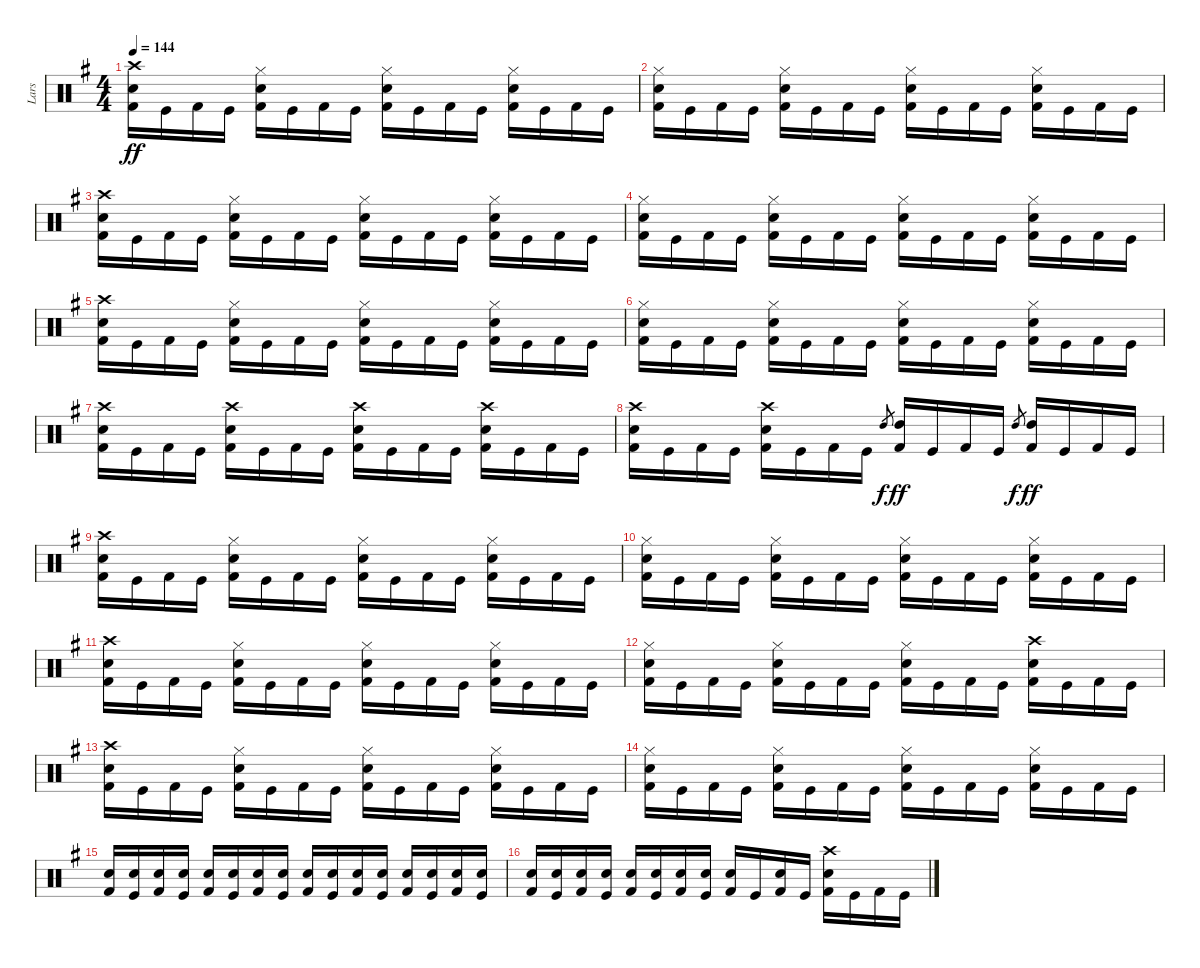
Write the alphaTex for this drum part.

\track ("Lars" "Lars") {instrument percussion}
\staff {score}
\articulation defaults
\ts (4 4)
\tempo 144
\clef neutral
\ks g
("Crash high (hit)" "Snare (hit) 2" "Kick (hit) 2").16{dy ff} "Kick (hit)".16 "Kick (hit) 2".16 "Kick (hit)".16 ("Hi-Hat (closed)" "Snare (hit) 2" "Kick (hit) 2").16 "Kick (hit)".16 "Kick (hit) 2".16 "Kick (hit)".16 ("Hi-Hat (closed)" "Snare (hit) 2" "Kick (hit) 2").16 "Kick (hit)".16 "Kick (hit) 2".16 "Kick (hit)".16 ("Hi-Hat (closed)" "Snare (hit) 2" "Kick (hit) 2").16 "Kick (hit)".16 "Kick (hit) 2".16 "Kick (hit)".16 |
("Hi-Hat (closed)" "Snare (hit) 2" "Kick (hit) 2").16 "Kick (hit)".16 "Kick (hit) 2".16 "Kick (hit)".16 ("Hi-Hat (closed)" "Snare (hit) 2" "Kick (hit) 2").16 "Kick (hit)".16 "Kick (hit) 2".16 "Kick (hit)".16 ("Hi-Hat (closed)" "Snare (hit) 2" "Kick (hit) 2").16 "Kick (hit)".16 "Kick (hit) 2".16 "Kick (hit)".16 ("Hi-Hat (closed)" "Snare (hit) 2" "Kick (hit) 2").16 "Kick (hit)".16 "Kick (hit) 2".16 "Kick (hit)".16 |
("Crash high (hit)" "Snare (hit) 2" "Kick (hit) 2").16 "Kick (hit)".16 "Kick (hit) 2".16 "Kick (hit)".16 ("Hi-Hat (closed)" "Snare (hit) 2" "Kick (hit) 2").16 "Kick (hit)".16 "Kick (hit) 2".16 "Kick (hit)".16 ("Hi-Hat (closed)" "Snare (hit) 2" "Kick (hit) 2").16 "Kick (hit)".16 "Kick (hit) 2".16 "Kick (hit)".16 ("Hi-Hat (closed)" "Snare (hit) 2" "Kick (hit) 2").16 "Kick (hit)".16 "Kick (hit) 2".16 "Kick (hit)".16 |
("Hi-Hat (closed)" "Snare (hit) 2" "Kick (hit) 2").16 "Kick (hit)".16 "Kick (hit) 2".16 "Kick (hit)".16 ("Hi-Hat (closed)" "Snare (hit) 2" "Kick (hit) 2").16 "Kick (hit)".16 "Kick (hit) 2".16 "Kick (hit)".16 ("Hi-Hat (closed)" "Snare (hit) 2" "Kick (hit) 2").16 "Kick (hit)".16 "Kick (hit) 2".16 "Kick (hit)".16 ("Hi-Hat (closed)" "Snare (hit) 2" "Kick (hit) 2").16 "Kick (hit)".16 "Kick (hit) 2".16 "Kick (hit)".16 |
("Crash high (hit)" "Snare (hit) 2" "Kick (hit) 2").16 "Kick (hit)".16 "Kick (hit) 2".16 "Kick (hit)".16 ("Hi-Hat (closed)" "Snare (hit) 2" "Kick (hit) 2").16 "Kick (hit)".16 "Kick (hit) 2".16 "Kick (hit)".16 ("Hi-Hat (closed)" "Snare (hit) 2" "Kick (hit) 2").16 "Kick (hit)".16 "Kick (hit) 2".16 "Kick (hit)".16 ("Hi-Hat (closed)" "Snare (hit) 2" "Kick (hit) 2").16 "Kick (hit)".16 "Kick (hit) 2".16 "Kick (hit)".16 |
("Hi-Hat (closed)" "Snare (hit) 2" "Kick (hit) 2").16 "Kick (hit)".16 "Kick (hit) 2".16 "Kick (hit)".16 ("Hi-Hat (closed)" "Snare (hit) 2" "Kick (hit) 2").16 "Kick (hit)".16 "Kick (hit) 2".16 "Kick (hit)".16 ("Hi-Hat (closed)" "Snare (hit) 2" "Kick (hit) 2").16 "Kick (hit)".16 "Kick (hit) 2".16 "Kick (hit)".16 ("Hi-Hat (closed)" "Snare (hit) 2" "Kick (hit) 2").16 "Kick (hit)".16 "Kick (hit) 2".16 "Kick (hit)".16 |
("Crash high (hit)" "Snare (hit) 2" "Kick (hit) 2").16 "Kick (hit)".16 "Kick (hit) 2".16 "Kick (hit)".16 ("Crash high (hit)" "Snare (hit) 2" "Kick (hit) 2").16 "Kick (hit)".16 "Kick (hit) 2".16 "Kick (hit)".16 ("Crash high (hit)" "Snare (hit) 2" "Kick (hit) 2").16 "Kick (hit)".16 "Kick (hit) 2".16 "Kick (hit)".16 ("Crash high (hit)" "Snare (hit) 2" "Kick (hit) 2").16 "Kick (hit)".16 "Kick (hit) 2".16 "Kick (hit)".16 |
("Crash high (hit)" "Snare (hit) 2" "Kick (hit) 2").16 "Kick (hit)".16 "Kick (hit) 2".16 "Kick (hit)".16 ("Crash high (hit)" "Snare (hit) 2" "Kick (hit) 2").16 "Kick (hit)".16 "Kick (hit) 2".16 "Kick (hit)".16 "High Tom (hit)".8{gr dy f} ("High Tom (hit)" "Kick (hit) 2").16{dy ff} "Kick (hit)".16 "Kick (hit) 2".16 "Kick (hit)".16 "High Tom (hit)".8{gr dy f} ("High Tom (hit)" "Kick (hit) 2").16{dy ff} "Kick (hit)".16 "Kick (hit) 2".16 "Kick (hit)".16 |
("Crash high (hit)" "Snare (hit) 2" "Kick (hit) 2").16 "Kick (hit)".16 "Kick (hit) 2".16 "Kick (hit)".16 ("Hi-Hat (closed)" "Snare (hit) 2" "Kick (hit) 2").16 "Kick (hit)".16 "Kick (hit) 2".16 "Kick (hit)".16 ("Hi-Hat (closed)" "Snare (hit) 2" "Kick (hit) 2").16 "Kick (hit)".16 "Kick (hit) 2".16 "Kick (hit)".16 ("Hi-Hat (closed)" "Snare (hit) 2" "Kick (hit) 2").16 "Kick (hit)".16 "Kick (hit) 2".16 "Kick (hit)".16 |
("Hi-Hat (closed)" "Snare (hit) 2" "Kick (hit) 2").16 "Kick (hit)".16 "Kick (hit) 2".16 "Kick (hit)".16 ("Hi-Hat (closed)" "Snare (hit) 2" "Kick (hit) 2").16 "Kick (hit)".16 "Kick (hit) 2".16 "Kick (hit)".16 ("Hi-Hat (closed)" "Snare (hit) 2" "Kick (hit) 2").16 "Kick (hit)".16 "Kick (hit) 2".16 "Kick (hit)".16 ("Hi-Hat (closed)" "Snare (hit) 2" "Kick (hit) 2").16 "Kick (hit)".16 "Kick (hit) 2".16 "Kick (hit)".16 |
("Crash high (hit)" "Snare (hit) 2" "Kick (hit) 2").16 "Kick (hit)".16 "Kick (hit) 2".16 "Kick (hit)".16 ("Hi-Hat (closed)" "Snare (hit) 2" "Kick (hit) 2").16 "Kick (hit)".16 "Kick (hit) 2".16 "Kick (hit)".16 ("Hi-Hat (closed)" "Snare (hit) 2" "Kick (hit) 2").16 "Kick (hit)".16 "Kick (hit) 2".16 "Kick (hit)".16 ("Hi-Hat (closed)" "Snare (hit) 2" "Kick (hit) 2").16 "Kick (hit)".16 "Kick (hit) 2".16 "Kick (hit)".16 |
("Hi-Hat (closed)" "Snare (hit) 2" "Kick (hit) 2").16 "Kick (hit)".16 "Kick (hit) 2".16 "Kick (hit)".16 ("Hi-Hat (closed)" "Snare (hit) 2" "Kick (hit) 2").16 "Kick (hit)".16 "Kick (hit) 2".16 "Kick (hit)".16 ("Hi-Hat (closed)" "Snare (hit) 2" "Kick (hit) 2").16 "Kick (hit)".16 "Kick (hit) 2".16 "Kick (hit)".16 ("Crash high (hit)" "Snare (hit) 2" "Kick (hit) 2").16 "Kick (hit)".16 "Kick (hit) 2".16 "Kick (hit)".16 |
("Crash high (hit)" "Snare (hit) 2" "Kick (hit) 2").16 "Kick (hit)".16 "Kick (hit) 2".16 "Kick (hit)".16 ("Hi-Hat (closed)" "Snare (hit) 2" "Kick (hit) 2").16 "Kick (hit)".16 "Kick (hit) 2".16 "Kick (hit)".16 ("Hi-Hat (closed)" "Snare (hit) 2" "Kick (hit) 2").16 "Kick (hit)".16 "Kick (hit) 2".16 "Kick (hit)".16 ("Hi-Hat (closed)" "Snare (hit) 2" "Kick (hit) 2").16 "Kick (hit)".16 "Kick (hit) 2".16 "Kick (hit)".16 |
("Hi-Hat (closed)" "Snare (hit) 2" "Kick (hit) 2").16 "Kick (hit)".16 "Kick (hit) 2".16 "Kick (hit)".16 ("Hi-Hat (closed)" "Snare (hit) 2" "Kick (hit) 2").16 "Kick (hit)".16 "Kick (hit) 2".16 "Kick (hit)".16 ("Hi-Hat (closed)" "Snare (hit) 2" "Kick (hit) 2").16 "Kick (hit)".16 "Kick (hit) 2".16 "Kick (hit)".16 ("Hi-Hat (closed)" "Snare (hit) 2" "Kick (hit) 2").16 "Kick (hit)".16 "Kick (hit) 2".16 "Kick (hit)".16 |
("Snare (hit) 2" "Kick (hit) 2").16 ("Snare (hit) 2" "Kick (hit)").16 ("Snare (hit) 2" "Kick (hit) 2").16 ("Snare (hit) 2" "Kick (hit)").16 ("Snare (hit) 2" "Kick (hit) 2").16 ("Snare (hit) 2" "Kick (hit)").16 ("Snare (hit) 2" "Kick (hit) 2").16 ("Snare (hit) 2" "Kick (hit)").16 ("Snare (hit) 2" "Kick (hit) 2").16 ("Snare (hit) 2" "Kick (hit)").16 ("Snare (hit) 2" "Kick (hit) 2").16 ("Snare (hit) 2" "Kick (hit)").16 ("Snare (hit) 2" "Kick (hit) 2").16 ("Snare (hit) 2" "Kick (hit)").16 ("Snare (hit) 2" "Kick (hit) 2").16 ("Snare (hit) 2" "Kick (hit)").16 |
("Snare (hit) 2" "Kick (hit) 2").16 ("Snare (hit) 2" "Kick (hit)").16 ("Snare (hit) 2" "Kick (hit) 2").16 ("Snare (hit) 2" "Kick (hit)").16 ("Snare (hit) 2" "Kick (hit) 2").16 ("Snare (hit) 2" "Kick (hit)").16 ("Snare (hit) 2" "Kick (hit) 2").16 ("Snare (hit) 2" "Kick (hit)").16 ("Snare (hit) 2" "Kick (hit) 2").16 "Kick (hit)".16 ("Snare (hit) 2" "Kick (hit) 2").16 "Kick (hit)".16 ("Crash high (hit)" "Snare (hit) 2" "Kick (hit) 2").16 "Kick (hit)".16 "Kick (hit) 2".16 "Kick (hit)".16
